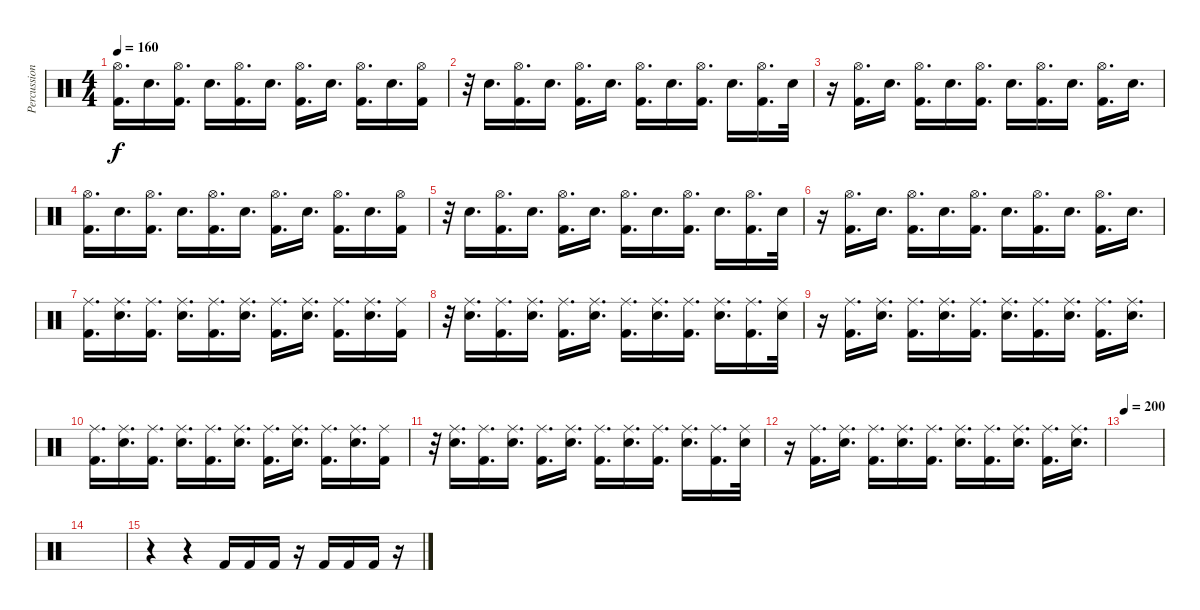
\track ("Percussion" "Percussion") {instrument percussion}
\staff {score}
\articulation defaults
\ts (4 4)
\tempo 160
\clef neutral
\ks c
("Hi-Hat (open)" "Kick (hit) 2").16{d dy f} "Electric Snare (hit)".16{d} ("Hi-Hat (open)" "Kick (hit) 2").16{d} "Electric Snare (hit)".16{d} ("Hi-Hat (open)" "Kick (hit) 2").16{d} "Electric Snare (hit)".16{d} ("Hi-Hat (open)" "Kick (hit) 2").16{d} "Electric Snare (hit)".16{d} ("Hi-Hat (open)" "Kick (hit) 2").16{d} "Electric Snare (hit)".16{d} ("Hi-Hat (open)" "Kick (hit) 2").16 |
r.32 "Electric Snare (hit)".16{d} ("Hi-Hat (open)" "Kick (hit) 2").16{d} "Electric Snare (hit)".16{d} ("Hi-Hat (open)" "Kick (hit) 2").16{d} "Electric Snare (hit)".16{d} ("Hi-Hat (open)" "Kick (hit) 2").16{d} "Electric Snare (hit)".16{d} ("Hi-Hat (open)" "Kick (hit) 2").16{d} "Electric Snare (hit)".16{d} ("Hi-Hat (open)" "Kick (hit) 2").16{d} "Electric Snare (hit)".32 |
r.16 ("Hi-Hat (open)" "Kick (hit) 2").16{d} "Electric Snare (hit)".16{d} ("Hi-Hat (open)" "Kick (hit) 2").16{d} "Electric Snare (hit)".16{d} ("Hi-Hat (open)" "Kick (hit) 2").16{d} "Electric Snare (hit)".16{d} ("Hi-Hat (open)" "Kick (hit) 2").16{d} "Electric Snare (hit)".16{d} ("Hi-Hat (open)" "Kick (hit) 2").16{d} "Electric Snare (hit)".16{d} |
("Hi-Hat (open)" "Kick (hit) 2").16{d} "Electric Snare (hit)".16{d} ("Hi-Hat (open)" "Kick (hit) 2").16{d} "Electric Snare (hit)".16{d} ("Hi-Hat (open)" "Kick (hit) 2").16{d} "Electric Snare (hit)".16{d} ("Hi-Hat (open)" "Kick (hit) 2").16{d} "Electric Snare (hit)".16{d} ("Hi-Hat (open)" "Kick (hit) 2").16{d} "Electric Snare (hit)".16{d} ("Hi-Hat (open)" "Kick (hit) 2").16 |
r.32 "Electric Snare (hit)".16{d} ("Hi-Hat (open)" "Kick (hit) 2").16{d} "Electric Snare (hit)".16{d} ("Hi-Hat (open)" "Kick (hit) 2").16{d} "Electric Snare (hit)".16{d} ("Hi-Hat (open)" "Kick (hit) 2").16{d} "Electric Snare (hit)".16{d} ("Hi-Hat (open)" "Kick (hit) 2").16{d} "Electric Snare (hit)".16{d} ("Hi-Hat (open)" "Kick (hit) 2").16{d} "Electric Snare (hit)".32 |
r.16 ("Hi-Hat (open)" "Kick (hit) 2").16{d} "Electric Snare (hit)".16{d} ("Hi-Hat (open)" "Kick (hit) 2").16{d} "Electric Snare (hit)".16{d} ("Hi-Hat (open)" "Kick (hit) 2").16{d} "Electric Snare (hit)".16{d} ("Hi-Hat (open)" "Kick (hit) 2").16{d} "Electric Snare (hit)".16{d} ("Hi-Hat (open)" "Kick (hit) 2").16{d} "Electric Snare (hit)".16{d} |
("Ride (middle)" "Kick (hit) 2").16{d} ("Ride (middle)" "Electric Snare (hit)").16{d} ("Ride (middle)" "Kick (hit) 2").16{d} ("Ride (middle)" "Electric Snare (hit)").16{d} ("Ride (middle)" "Kick (hit) 2").16{d} ("Ride (middle)" "Electric Snare (hit)").16{d} ("Ride (middle)" "Kick (hit) 2").16{d} ("Ride (middle)" "Electric Snare (hit)").16{d} ("Ride (middle)" "Kick (hit) 2").16{d} ("Ride (middle)" "Electric Snare (hit)").16{d} ("Ride (middle)" "Kick (hit) 2").16 |
r.32 ("Ride (middle)" "Electric Snare (hit)").16{d} ("Ride (middle)" "Kick (hit) 2").16{d} ("Ride (middle)" "Electric Snare (hit)").16{d} ("Ride (middle)" "Kick (hit) 2").16{d} ("Ride (middle)" "Electric Snare (hit)").16{d} ("Ride (middle)" "Kick (hit) 2").16{d} ("Ride (middle)" "Electric Snare (hit)").16{d} ("Ride (middle)" "Kick (hit) 2").16{d} ("Ride (middle)" "Electric Snare (hit)").16{d} ("Ride (middle)" "Kick (hit) 2").16{d} ("Ride (middle)" "Electric Snare (hit)").32 |
r.16 ("Ride (middle)" "Kick (hit) 2").16{d} ("Ride (middle)" "Electric Snare (hit)").16{d} ("Ride (middle)" "Kick (hit) 2").16{d} ("Ride (middle)" "Electric Snare (hit)").16{d} ("Ride (middle)" "Kick (hit) 2").16{d} ("Ride (middle)" "Electric Snare (hit)").16{d} ("Ride (middle)" "Kick (hit) 2").16{d} ("Ride (middle)" "Electric Snare (hit)").16{d} ("Ride (middle)" "Kick (hit) 2").16{d} ("Ride (middle)" "Electric Snare (hit)").16{d} |
("Ride (middle)" "Kick (hit) 2").16{d} ("Ride (middle)" "Electric Snare (hit)").16{d} ("Ride (middle)" "Kick (hit) 2").16{d} ("Ride (middle)" "Electric Snare (hit)").16{d} ("Ride (middle)" "Kick (hit) 2").16{d} ("Ride (middle)" "Electric Snare (hit)").16{d} ("Ride (middle)" "Kick (hit) 2").16{d} ("Ride (middle)" "Electric Snare (hit)").16{d} ("Ride (middle)" "Kick (hit) 2").16{d} ("Ride (middle)" "Electric Snare (hit)").16{d} ("Ride (middle)" "Kick (hit) 2").16 |
r.32 ("Ride (middle)" "Electric Snare (hit)").16{d} ("Ride (middle)" "Kick (hit) 2").16{d} ("Ride (middle)" "Electric Snare (hit)").16{d} ("Ride (middle)" "Kick (hit) 2").16{d} ("Ride (middle)" "Electric Snare (hit)").16{d} ("Ride (middle)" "Kick (hit) 2").16{d} ("Ride (middle)" "Electric Snare (hit)").16{d} ("Ride (middle)" "Kick (hit) 2").16{d} ("Ride (middle)" "Electric Snare (hit)").16{d} ("Ride (middle)" "Kick (hit) 2").16{d} ("Ride (middle)" "Electric Snare (hit)").32 |
r.16 ("Ride (middle)" "Kick (hit) 2").16{d} ("Ride (middle)" "Electric Snare (hit)").16{d} ("Ride (middle)" "Kick (hit) 2").16{d} ("Ride (middle)" "Electric Snare (hit)").16{d} ("Ride (middle)" "Kick (hit) 2").16{d} ("Ride (middle)" "Electric Snare (hit)").16{d} ("Ride (middle)" "Kick (hit) 2").16{d} ("Ride (middle)" "Electric Snare (hit)").16{d} ("Ride (middle)" "Kick (hit) 2").16{d} ("Ride (middle)" "Electric Snare (hit)").16{d} |
\tempo 200
|
|
r.4 r.4 "Kick (hit) 2".16 "Kick (hit) 2".16 "Kick (hit) 2".16 r.16 "Kick (hit) 2".16 "Kick (hit) 2".16 "Kick (hit) 2".16 r.16
